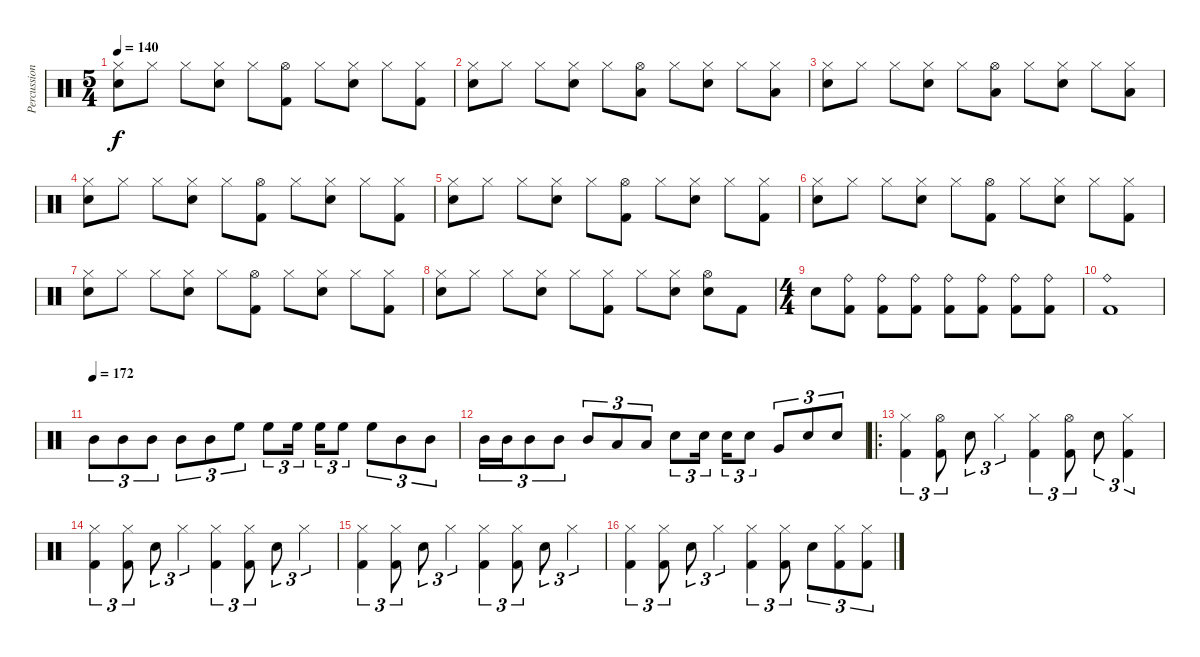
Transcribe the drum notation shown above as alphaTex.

\track ("Percussions" "Percussion") {instrument percussion}
\staff {score}
\articulation defaults
\ts (5 4)
\tempo 140
\clef neutral
\ks c
("Hi-Hat (closed)" "Snare (hit) 2").8{dy f} "Hi-Hat (closed)".8 "Hi-Hat (closed)".8 ("Hi-Hat (closed)" "Snare (hit) 2").8 "Hi-Hat (closed)".8 ("Hi-Hat (open)" "Kick (hit) 2").8 "Hi-Hat (closed)".8 ("Hi-Hat (closed)" "Snare (hit) 2").8 "Hi-Hat (closed)".8 ("Hi-Hat (closed)" "Kick (hit) 2").8 |
("Hi-Hat (closed)" "Snare (hit) 2").8 "Hi-Hat (closed)".8 "Hi-Hat (closed)".8 ("Hi-Hat (closed)" "Snare (hit) 2").8 "Hi-Hat (closed)".8 ("Hi-Hat (open)" "Low Floor Tom (hit)").8 "Hi-Hat (closed)".8 ("Hi-Hat (closed)" "Snare (hit) 2").8 "Hi-Hat (closed)".8 ("Hi-Hat (closed)" "Low Floor Tom (hit)").8 |
("Hi-Hat (closed)" "Snare (hit) 2").8 "Hi-Hat (closed)".8 "Hi-Hat (closed)".8 ("Hi-Hat (closed)" "Snare (hit) 2").8 "Hi-Hat (closed)".8 ("Hi-Hat (open)" "Low Floor Tom (hit)").8 "Hi-Hat (closed)".8 ("Hi-Hat (closed)" "Snare (hit) 2").8 "Hi-Hat (closed)".8 ("Hi-Hat (closed)" "Low Floor Tom (hit)").8 |
("Hi-Hat (closed)" "Snare (hit) 2").8 "Hi-Hat (closed)".8 "Hi-Hat (closed)".8 ("Hi-Hat (closed)" "Snare (hit) 2").8 "Hi-Hat (closed)".8 ("Hi-Hat (open)" "Kick (hit) 2").8 "Hi-Hat (closed)".8 ("Hi-Hat (closed)" "Snare (hit) 2").8 "Hi-Hat (closed)".8 ("Hi-Hat (closed)" "Kick (hit) 2").8 |
("Hi-Hat (closed)" "Snare (hit) 2").8 "Hi-Hat (closed)".8 "Hi-Hat (closed)".8 ("Hi-Hat (closed)" "Snare (hit) 2").8 "Hi-Hat (closed)".8 ("Hi-Hat (open)" "Kick (hit) 2").8 "Hi-Hat (closed)".8 ("Hi-Hat (closed)" "Snare (hit) 2").8 "Hi-Hat (closed)".8 ("Hi-Hat (closed)" "Kick (hit) 2").8 |
("Hi-Hat (closed)" "Snare (hit) 2").8 "Hi-Hat (closed)".8 "Hi-Hat (closed)".8 ("Hi-Hat (closed)" "Snare (hit) 2").8 "Hi-Hat (closed)".8 ("Hi-Hat (open)" "Kick (hit) 2").8 "Hi-Hat (closed)".8 ("Hi-Hat (closed)" "Snare (hit) 2").8 "Hi-Hat (closed)".8 ("Hi-Hat (closed)" "Kick (hit) 2").8 |
("Hi-Hat (closed)" "Snare (hit) 2").8 "Hi-Hat (closed)".8 "Hi-Hat (closed)".8 ("Hi-Hat (closed)" "Snare (hit) 2").8 "Hi-Hat (closed)".8 ("Hi-Hat (open)" "Kick (hit) 2").8 "Hi-Hat (closed)".8 ("Hi-Hat (closed)" "Snare (hit) 2").8 "Hi-Hat (closed)".8 ("Hi-Hat (closed)" "Kick (hit) 2").8 |
("Hi-Hat (closed)" "Snare (hit) 2").8 "Hi-Hat (closed)".8 "Hi-Hat (closed)".8 ("Hi-Hat (closed)" "Snare (hit) 2").8 "Hi-Hat (closed)".8 ("Hi-Hat (closed)" "Kick (hit) 2").8 "Hi-Hat (closed)".8 ("Hi-Hat (closed)" "Snare (hit) 2").8 ("Hi-Hat (open)" "Snare (hit) 2").8 "Kick (hit) 2".8 |
\ts (4 4)
"Snare (hit) 2".8 ("Ride (bell)" "Kick (hit) 2").8 ("Ride (bell)" "Kick (hit) 2").8 ("Ride (bell)" "Kick (hit) 2").8 ("Ride (bell)" "Kick (hit) 2").8 ("Ride (bell)" "Kick (hit) 2").8 ("Ride (bell)" "Kick (hit) 2").8 ("Ride (bell)" "Kick (hit) 2").8 |
("Ride (bell)" "Kick (hit) 2").1 |
\tempo (172)
"Mid Tom (hit)".8{tu (3 2)} "Mid Tom (hit)".8{tu (3 2)} "Mid Tom (hit)".8{tu (3 2)} "Mid Tom (hit)".8{tu (3 2)} "Mid Tom (hit)".8{tu (3 2)} "High Floor Tom (hit)".8{tu (3 2)} "High Floor Tom (hit)".8{tu (3 2)} "High Floor Tom (hit)".16{tu (3 2)} "High Floor Tom (hit)".16{tu (3 2)} "High Floor Tom (hit)".8{tu (3 2)} "High Floor Tom (hit)".8{tu (3 2)} "Mid Tom (hit)".8{tu (3 2)} "Mid Tom (hit)".8{tu (3 2)} |
"Mid Tom (hit)".16{tu (3 2)} "Mid Tom (hit)".16{tu (3 2)} "Mid Tom (hit)".8{tu (3 2)} "Mid Tom (hit)".8{tu (3 2)} "Mid Tom (hit)".8{tu (3 2)} "Low Tom (hit)".8{tu (3 2)} "Low Tom (hit)".8{tu (3 2)} "Snare (hit) 2".8{tu (3 2)} "Snare (hit) 2".16{tu (3 2)} "Snare (hit) 2".16{tu (3 2)} "Snare (hit) 2".8{tu (3 2)} "Very Low Tom (hit)".8{tu (3 2)} "Snare (hit) 2".8{tu (3 2)} "Snare (hit) 2".8{tu (3 2)} |
\ro
("Hi-Hat (closed)" "Kick (hit) 2").4{tu (3 2)} ("Hi-Hat (open)" "Kick (hit) 2").8{tu (3 2)} "Snare (hit) 2".8{tu (3 2)} "Hi-Hat (closed)".4{tu (3 2)} ("Hi-Hat (closed)" "Kick (hit) 2").4{tu (3 2)} ("Hi-Hat (open)" "Kick (hit) 2").8{tu (3 2)} "Snare (hit) 2".8{tu (3 2)} ("Hi-Hat (closed)" "Kick (hit) 2").4{tu (3 2)} |
("Hi-Hat (closed)" "Kick (hit) 2").4{tu (3 2)} ("Hi-Hat (closed)" "Kick (hit) 2").8{tu (3 2)} "Snare (hit) 2".8{tu (3 2)} "Hi-Hat (closed)".4{tu (3 2)} ("Hi-Hat (closed)" "Kick (hit) 2").4{tu (3 2)} ("Hi-Hat (closed)" "Kick (hit) 2").8{tu (3 2)} "Snare (hit) 2".8{tu (3 2)} "Hi-Hat (closed)".4{tu (3 2)} |
("Hi-Hat (closed)" "Kick (hit) 2").4{tu (3 2)} ("Hi-Hat (closed)" "Kick (hit) 2").8{tu (3 2)} "Snare (hit) 2".8{tu (3 2)} "Hi-Hat (closed)".4{tu (3 2)} ("Hi-Hat (closed)" "Kick (hit) 2").4{tu (3 2)} ("Hi-Hat (closed)" "Kick (hit) 2").8{tu (3 2)} "Snare (hit) 2".8{tu (3 2)} "Hi-Hat (closed)".4{tu (3 2)} |
("Hi-Hat (closed)" "Kick (hit) 2").4{tu (3 2)} ("Hi-Hat (closed)" "Kick (hit) 2").8{tu (3 2)} "Snare (hit) 2".8{tu (3 2)} "Hi-Hat (closed)".4{tu (3 2)} ("Hi-Hat (closed)" "Kick (hit) 2").4{tu (3 2)} ("Hi-Hat (closed)" "Kick (hit) 2").8{tu (3 2)} "Snare (hit) 2".8{tu (3 2)} ("Hi-Hat (closed)" "Kick (hit) 2").8{tu (3 2)} ("Hi-Hat (closed)" "Kick (hit) 2").8{tu (3 2)}
